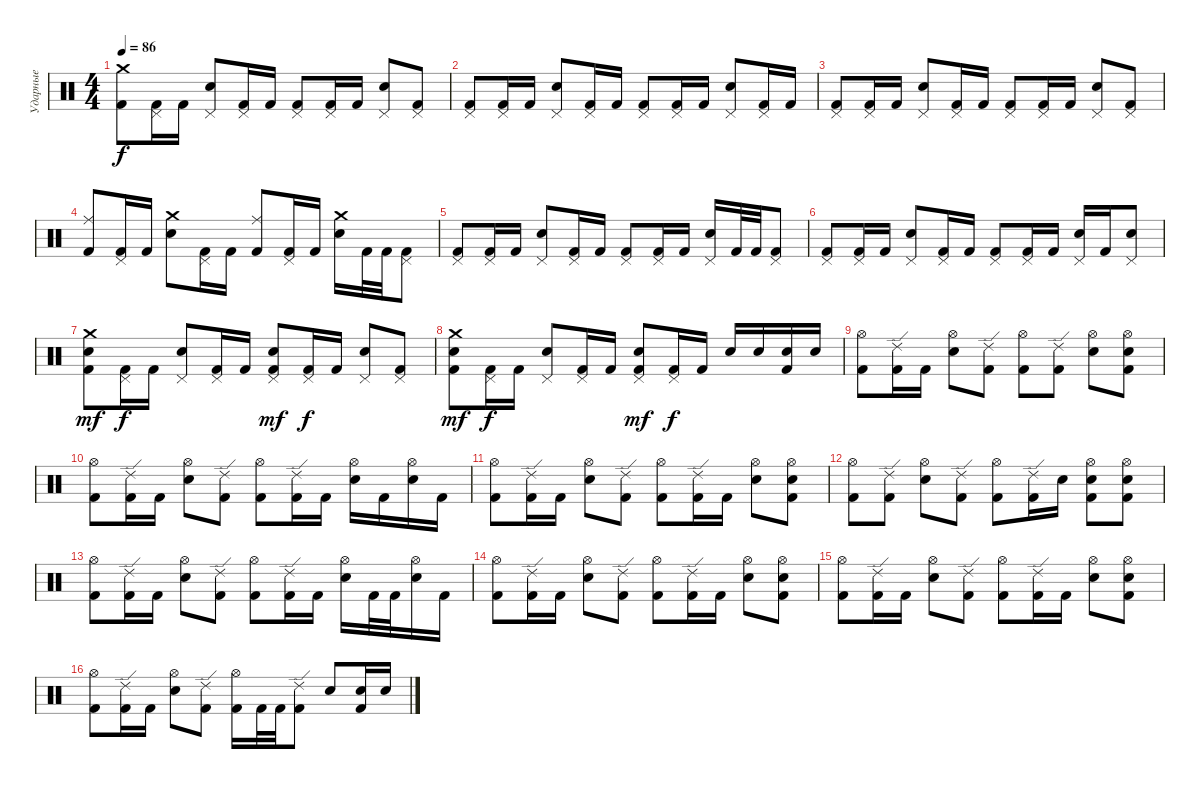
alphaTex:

\track ("Ударные" "Ударные") {instrument percussion}
\staff {score}
\articulation defaults
\ts (4 4)
\tempo 86
\clef neutral
\ks c
("Crash medium (hit)" "Kick (hit) 2").8{dy f} ("Pedal Hi-Hat (hit)" "Kick (hit) 2").16 "Kick (hit) 2".16 ("Pedal Hi-Hat (hit)" "Electric Snare (hit)").8 ("Pedal Hi-Hat (hit)" "Kick (hit) 2").16 "Kick (hit) 2".16 ("Pedal Hi-Hat (hit)" "Kick (hit) 2").8 ("Pedal Hi-Hat (hit)" "Kick (hit) 2").16 "Kick (hit) 2".16 ("Pedal Hi-Hat (hit)" "Electric Snare (hit)").8 ("Pedal Hi-Hat (hit)" "Kick (hit) 2").8 |
("Pedal Hi-Hat (hit)" "Kick (hit) 2").8 ("Pedal Hi-Hat (hit)" "Kick (hit) 2").16 "Kick (hit) 2".16 ("Pedal Hi-Hat (hit)" "Electric Snare (hit)").8 ("Pedal Hi-Hat (hit)" "Kick (hit) 2").16 "Kick (hit) 2".16 ("Pedal Hi-Hat (hit)" "Kick (hit) 2").8 ("Pedal Hi-Hat (hit)" "Kick (hit) 2").16 "Kick (hit) 2".16 ("Pedal Hi-Hat (hit)" "Electric Snare (hit)").8 ("Pedal Hi-Hat (hit)" "Kick (hit) 2").16 "Kick (hit) 2".16 |
("Pedal Hi-Hat (hit)" "Kick (hit) 2").8 ("Pedal Hi-Hat (hit)" "Kick (hit) 2").16 "Kick (hit) 2".16 ("Pedal Hi-Hat (hit)" "Electric Snare (hit)").8 ("Pedal Hi-Hat (hit)" "Kick (hit) 2").16 "Kick (hit) 2".16 ("Pedal Hi-Hat (hit)" "Kick (hit) 2").8 ("Pedal Hi-Hat (hit)" "Kick (hit) 2").16 "Kick (hit) 2".16 ("Pedal Hi-Hat (hit)" "Electric Snare (hit)").8 ("Pedal Hi-Hat (hit)" "Kick (hit) 2").8 |
("Ride (middle)" "Kick (hit) 2").8 ("Pedal Hi-Hat (hit)" "Kick (hit) 2").16 "Kick (hit) 2".16 ("Crash medium (hit)" "Electric Snare (hit)").8 ("Pedal Hi-Hat (hit)" "Kick (hit) 2").16 "Kick (hit) 2".16 ("Ride (middle)" "Kick (hit) 2").8 ("Pedal Hi-Hat (hit)" "Kick (hit) 2").16 "Kick (hit) 2".16 ("Crash medium (hit)" "Electric Snare (hit)").16 "Kick (hit) 2".32 "Kick (hit) 2".32 ("Pedal Hi-Hat (hit)" "Kick (hit) 2").8 |
("Pedal Hi-Hat (hit)" "Kick (hit) 2").8 ("Pedal Hi-Hat (hit)" "Kick (hit) 2").16 "Kick (hit) 2".16 ("Pedal Hi-Hat (hit)" "Electric Snare (hit)").8 ("Pedal Hi-Hat (hit)" "Kick (hit) 2").16 "Kick (hit) 2".16 ("Pedal Hi-Hat (hit)" "Kick (hit) 2").8 ("Pedal Hi-Hat (hit)" "Kick (hit) 2").16 "Kick (hit) 2".16 ("Pedal Hi-Hat (hit)" "Electric Snare (hit)").16 "Kick (hit) 2".32 "Kick (hit) 2".32 ("Pedal Hi-Hat (hit)" "Kick (hit) 2").8 |
("Pedal Hi-Hat (hit)" "Kick (hit) 2").8 ("Pedal Hi-Hat (hit)" "Kick (hit) 2").16 "Kick (hit) 2".16 ("Pedal Hi-Hat (hit)" "Electric Snare (hit)").8 ("Pedal Hi-Hat (hit)" "Kick (hit) 2").16 "Kick (hit) 2".16 ("Pedal Hi-Hat (hit)" "Kick (hit) 2").8 ("Pedal Hi-Hat (hit)" "Kick (hit) 2").16 "Kick (hit) 2".16 ("Pedal Hi-Hat (hit)" "Electric Snare (hit)").16 "Kick (hit) 2".16 ("Pedal Hi-Hat (hit)" "Electric Snare (hit)").8 |
("Crash medium (hit)" "Electric Snare (hit)" "Kick (hit) 2").8{dy mf} ("Pedal Hi-Hat (hit)" "Kick (hit) 2").16{dy f} "Kick (hit) 2".16 ("Pedal Hi-Hat (hit)" "Electric Snare (hit)").8 ("Pedal Hi-Hat (hit)" "Kick (hit) 2").16 "Kick (hit) 2".16 ("Pedal Hi-Hat (hit)" "Electric Snare (hit)" "Kick (hit) 2").8{dy mf} ("Pedal Hi-Hat (hit)" "Kick (hit) 2").16{dy f} "Kick (hit) 2".16 ("Pedal Hi-Hat (hit)" "Electric Snare (hit)").8 ("Pedal Hi-Hat (hit)" "Kick (hit) 2").8 |
("Crash medium (hit)" "Electric Snare (hit)" "Kick (hit) 2").8{dy mf} ("Pedal Hi-Hat (hit)" "Kick (hit) 2").16{dy f} "Kick (hit) 2".16 ("Pedal Hi-Hat (hit)" "Electric Snare (hit)").8 ("Pedal Hi-Hat (hit)" "Kick (hit) 2").16 "Kick (hit) 2".16 ("Pedal Hi-Hat (hit)" "Electric Snare (hit)" "Kick (hit) 2").8{dy mf} ("Pedal Hi-Hat (hit)" "Kick (hit) 2").16{dy f} "Kick (hit) 2".16 "Electric Snare (hit)".16 "Electric Snare (hit)".16 ("Electric Snare (hit)" "Kick (hit) 2").16 "Electric Snare (hit)".16 |
("Hi-Hat (open)" "Kick (hit) 2").8 ("Ride (edge) 2" "Kick (hit) 2").16 "Kick (hit) 2".16 ("Hi-Hat (open)" "Electric Snare (hit)").8 ("Ride (edge) 2" "Kick (hit) 2").8 ("Hi-Hat (open)" "Kick (hit) 2").8 ("Ride (edge) 2" "Kick (hit) 2").8 ("Hi-Hat (open)" "Electric Snare (hit)").8 ("Hi-Hat (open)" "Electric Snare (hit)" "Kick (hit) 2").8 |
("Hi-Hat (open)" "Kick (hit) 2").8 ("Ride (edge) 2" "Kick (hit) 2").16 "Kick (hit) 2".16 ("Hi-Hat (open)" "Electric Snare (hit)").8 ("Ride (edge) 2" "Kick (hit) 2").8 ("Hi-Hat (open)" "Kick (hit) 2").8 ("Ride (edge) 2" "Kick (hit) 2").16 "Kick (hit) 2".16 ("Hi-Hat (open)" "Electric Snare (hit)").16 "Kick (hit) 2".16 ("Hi-Hat (open)" "Electric Snare (hit)").16 "Kick (hit) 2".16 |
("Hi-Hat (open)" "Kick (hit) 2").8 ("Ride (edge) 2" "Kick (hit) 2").16 "Kick (hit) 2".16 ("Hi-Hat (open)" "Electric Snare (hit)").8 ("Ride (edge) 2" "Kick (hit) 2").8 ("Hi-Hat (open)" "Kick (hit) 2").8 ("Ride (edge) 2" "Kick (hit) 2").16 "Kick (hit) 2".16 ("Hi-Hat (open)" "Electric Snare (hit)").8 ("Hi-Hat (open)" "Electric Snare (hit)" "Kick (hit) 2").8 |
("Hi-Hat (open)" "Kick (hit) 2").8 ("Ride (edge) 2" "Kick (hit) 2").8 ("Hi-Hat (open)" "Electric Snare (hit)").8 ("Ride (edge) 2" "Kick (hit) 2").8 ("Hi-Hat (open)" "Kick (hit) 2").8 ("Ride (edge) 2" "Kick (hit) 2").16 "Electric Snare (hit)".16 ("Hi-Hat (open)" "Electric Snare (hit)" "Kick (hit) 2").8 ("Hi-Hat (open)" "Electric Snare (hit)" "Kick (hit) 2").8 |
("Hi-Hat (open)" "Kick (hit) 2").8 ("Ride (edge) 2" "Kick (hit) 2").16 "Kick (hit) 2".16 ("Hi-Hat (open)" "Electric Snare (hit)").8 ("Ride (edge) 2" "Kick (hit) 2").8 ("Hi-Hat (open)" "Kick (hit) 2").8 ("Ride (edge) 2" "Kick (hit) 2").16 "Kick (hit) 2".16 ("Hi-Hat (open)" "Electric Snare (hit)").16 "Kick (hit) 2".32 "Kick (hit) 2".32 ("Hi-Hat (open)" "Electric Snare (hit)").16 "Kick (hit) 2".16 |
("Hi-Hat (open)" "Kick (hit) 2").8 ("Ride (edge) 2" "Kick (hit) 2").16 "Kick (hit) 2".16 ("Hi-Hat (open)" "Electric Snare (hit)").8 ("Ride (edge) 2" "Kick (hit) 2").8 ("Hi-Hat (open)" "Kick (hit) 2").8 ("Ride (edge) 2" "Kick (hit) 2").16 "Kick (hit) 2".16 ("Hi-Hat (open)" "Electric Snare (hit)").8 ("Hi-Hat (open)" "Electric Snare (hit)" "Kick (hit) 2").8 |
("Hi-Hat (open)" "Kick (hit) 2").8 ("Ride (edge) 2" "Kick (hit) 2").16 "Kick (hit) 2".16 ("Hi-Hat (open)" "Electric Snare (hit)").8 ("Ride (edge) 2" "Kick (hit) 2").8 ("Hi-Hat (open)" "Kick (hit) 2").8 ("Ride (edge) 2" "Kick (hit) 2").16 "Kick (hit) 2".16 ("Hi-Hat (open)" "Electric Snare (hit)").8 ("Hi-Hat (open)" "Electric Snare (hit)" "Kick (hit) 2").8 |
("Hi-Hat (open)" "Kick (hit) 2").8 ("Ride (edge) 2" "Kick (hit) 2").16 "Kick (hit) 2".16 ("Hi-Hat (open)" "Electric Snare (hit)").8 ("Ride (edge) 2" "Kick (hit) 2").8 ("Hi-Hat (open)" "Kick (hit) 2").16 "Kick (hit) 2".32 "Kick (hit) 2".32 ("Ride (edge) 2" "Kick (hit) 2").8 "Electric Snare (hit)".8 ("Electric Snare (hit)" "Kick (hit) 2").16 "Electric Snare (hit)".16
